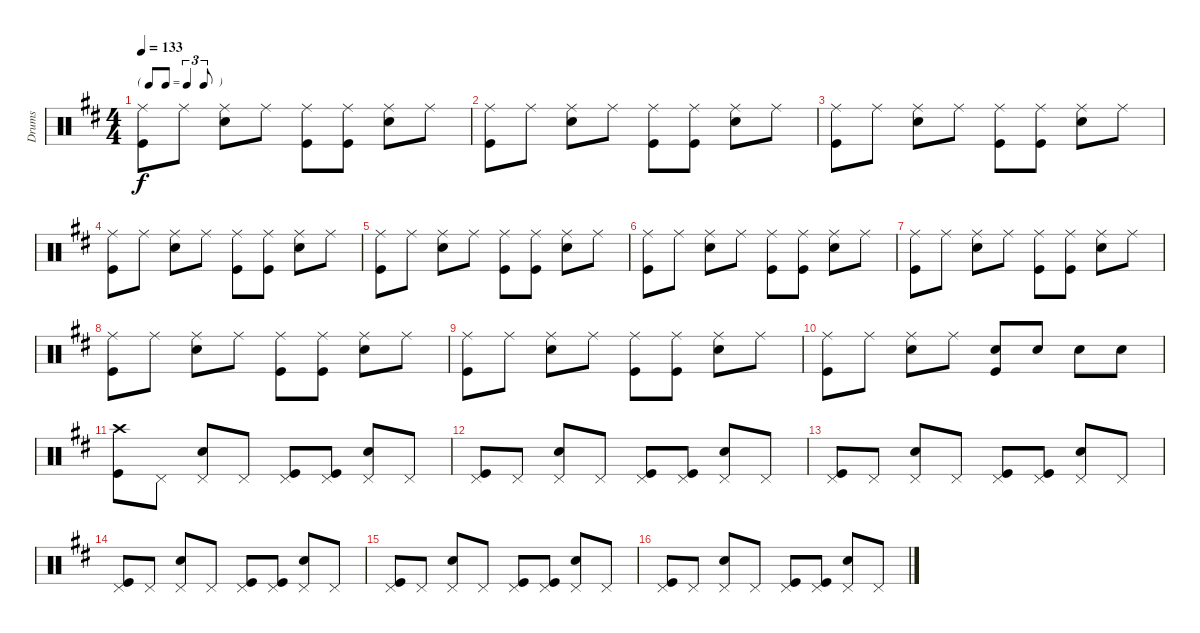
\track ("Drums" "Drums") {instrument percussion}
\staff {score}
\articulation defaults
\ts (4 4)
\tf triplet8th
\tempo 133
\clef neutral
\ks d
("Ride (middle)" "Kick (hit)").8{dy f} "Ride (middle)".8 ("Ride (middle)" "Snare (hit) 2").8 "Ride (middle)".8 ("Ride (middle)" "Kick (hit)").8 ("Ride (middle)" "Kick (hit)").8 ("Ride (middle)" "Snare (hit) 2").8 "Ride (middle)".8 |
("Ride (middle)" "Kick (hit)").8 "Ride (middle)".8 ("Ride (middle)" "Snare (hit) 2").8 "Ride (middle)".8 ("Ride (middle)" "Kick (hit)").8 ("Ride (middle)" "Kick (hit)").8 ("Ride (middle)" "Snare (hit) 2").8 "Ride (middle)".8 |
("Ride (middle)" "Kick (hit)").8 "Ride (middle)".8 ("Ride (middle)" "Snare (hit) 2").8 "Ride (middle)".8 ("Ride (middle)" "Kick (hit)").8 ("Ride (middle)" "Kick (hit)").8 ("Ride (middle)" "Snare (hit) 2").8 "Ride (middle)".8 |
("Ride (middle)" "Kick (hit)").8 "Ride (middle)".8 ("Ride (middle)" "Snare (hit) 2").8 "Ride (middle)".8 ("Ride (middle)" "Kick (hit)").8 ("Ride (middle)" "Kick (hit)").8 ("Ride (middle)" "Snare (hit) 2").8 "Ride (middle)".8 |
("Ride (middle)" "Kick (hit)").8 "Ride (middle)".8 ("Ride (middle)" "Snare (hit) 2").8 "Ride (middle)".8 ("Ride (middle)" "Kick (hit)").8 ("Ride (middle)" "Kick (hit)").8 ("Ride (middle)" "Snare (hit) 2").8 "Ride (middle)".8 |
("Ride (middle)" "Kick (hit)").8 "Ride (middle)".8 ("Ride (middle)" "Snare (hit) 2").8 "Ride (middle)".8 ("Ride (middle)" "Kick (hit)").8 ("Ride (middle)" "Kick (hit)").8 ("Ride (middle)" "Snare (hit) 2").8 "Ride (middle)".8 |
("Ride (middle)" "Kick (hit)").8 "Ride (middle)".8 ("Ride (middle)" "Snare (hit) 2").8 "Ride (middle)".8 ("Ride (middle)" "Kick (hit)").8 ("Ride (middle)" "Kick (hit)").8 ("Ride (middle)" "Snare (hit) 2").8 "Ride (middle)".8 |
("Ride (middle)" "Kick (hit)").8 "Ride (middle)".8 ("Ride (middle)" "Snare (hit) 2").8 "Ride (middle)".8 ("Ride (middle)" "Kick (hit)").8 ("Ride (middle)" "Kick (hit)").8 ("Ride (middle)" "Snare (hit) 2").8 "Ride (middle)".8 |
("Ride (middle)" "Kick (hit)").8 "Ride (middle)".8 ("Ride (middle)" "Snare (hit) 2").8 "Ride (middle)".8 ("Ride (middle)" "Kick (hit)").8 ("Ride (middle)" "Kick (hit)").8 ("Ride (middle)" "Snare (hit) 2").8 "Ride (middle)".8 |
("Ride (middle)" "Kick (hit)").8 "Ride (middle)".8 ("Ride (middle)" "Snare (hit) 2").8 "Ride (middle)".8 ("Snare (hit) 2" "Kick (hit)").8 "Snare (hit) 2".8 "Snare (hit) 2".8 "Snare (hit) 2".8 |
("Crash high (hit)" "Kick (hit)").8 "Pedal Hi-Hat (hit)".8 ("Pedal Hi-Hat (hit)" "Snare (hit) 2").8 "Pedal Hi-Hat (hit)".8 ("Pedal Hi-Hat (hit)" "Kick (hit)").8 ("Pedal Hi-Hat (hit)" "Kick (hit)").8 ("Pedal Hi-Hat (hit)" "Snare (hit) 2").8 "Pedal Hi-Hat (hit)".8 |
("Pedal Hi-Hat (hit)" "Kick (hit)").8 "Pedal Hi-Hat (hit)".8 ("Pedal Hi-Hat (hit)" "Snare (hit) 2").8 "Pedal Hi-Hat (hit)".8 ("Pedal Hi-Hat (hit)" "Kick (hit)").8 ("Pedal Hi-Hat (hit)" "Kick (hit)").8 ("Pedal Hi-Hat (hit)" "Snare (hit) 2").8 "Pedal Hi-Hat (hit)".8 |
("Pedal Hi-Hat (hit)" "Kick (hit)").8 "Pedal Hi-Hat (hit)".8 ("Pedal Hi-Hat (hit)" "Snare (hit) 2").8 "Pedal Hi-Hat (hit)".8 ("Pedal Hi-Hat (hit)" "Kick (hit)").8 ("Pedal Hi-Hat (hit)" "Kick (hit)").8 ("Pedal Hi-Hat (hit)" "Snare (hit) 2").8 "Pedal Hi-Hat (hit)".8 |
("Pedal Hi-Hat (hit)" "Kick (hit)").8 "Pedal Hi-Hat (hit)".8 ("Pedal Hi-Hat (hit)" "Snare (hit) 2").8 "Pedal Hi-Hat (hit)".8 ("Pedal Hi-Hat (hit)" "Kick (hit)").8 ("Pedal Hi-Hat (hit)" "Kick (hit)").8 ("Pedal Hi-Hat (hit)" "Snare (hit) 2").8 "Pedal Hi-Hat (hit)".8 |
("Pedal Hi-Hat (hit)" "Kick (hit)").8 "Pedal Hi-Hat (hit)".8 ("Pedal Hi-Hat (hit)" "Snare (hit) 2").8 "Pedal Hi-Hat (hit)".8 ("Pedal Hi-Hat (hit)" "Kick (hit)").8 ("Pedal Hi-Hat (hit)" "Kick (hit)").8 ("Pedal Hi-Hat (hit)" "Snare (hit) 2").8 "Pedal Hi-Hat (hit)".8 |
("Pedal Hi-Hat (hit)" "Kick (hit)").8 "Pedal Hi-Hat (hit)".8 ("Pedal Hi-Hat (hit)" "Snare (hit) 2").8 "Pedal Hi-Hat (hit)".8 ("Pedal Hi-Hat (hit)" "Kick (hit)").8 ("Pedal Hi-Hat (hit)" "Kick (hit)").8 ("Pedal Hi-Hat (hit)" "Snare (hit) 2").8 "Pedal Hi-Hat (hit)".8
